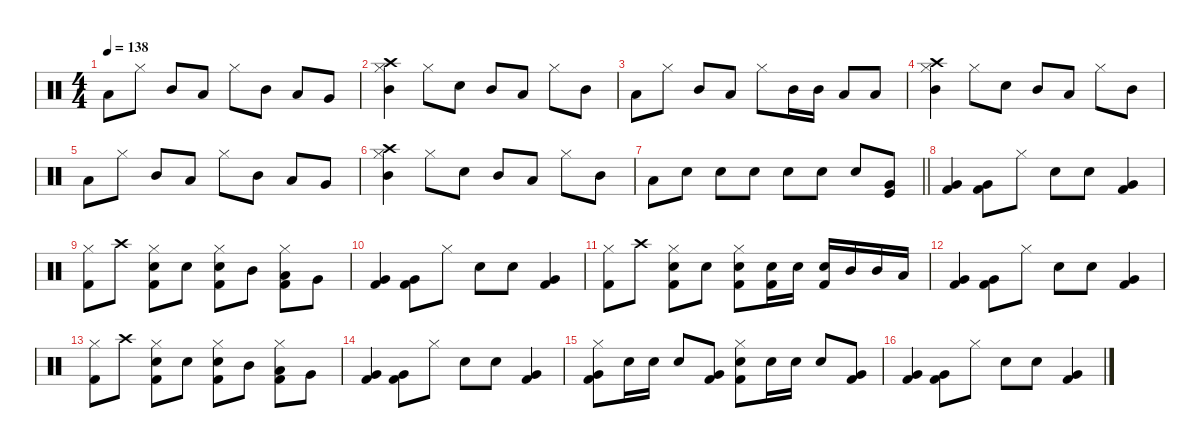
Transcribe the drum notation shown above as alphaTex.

\defaultSystemsLayout 4
\hideDynamics
\bracketExtendMode nobrackets
\singleTrackTrackNamePolicy hidden
\multiTrackTrackNamePolicy hidden
\otherSystemsTrackNameOrientation horizontal
\track ("Drums" "drm.") {instrument percussion}
\staff {score}
\articulation defaults
\ts (4 4)
\tempo 138
\clef neutral
\ks c "Low Tom (hit)".8{dy ff beam Down} "Hi-Hat (closed)".8{beam Down} "Mid Tom (hit)".8{beam Up} "Low Tom (hit)".8{beam Up} "Hi-Hat (closed)".8{beam Down} "Mid Tom (hit)".8{beam Down} "Low Tom (hit)".8{beam Up} "Very Low Tom (hit)".8{beam Up}
|
("Crash high (hit)" "Hi-Hat (closed)" "Mid Tom (hit)").4{beam Down} "Hi-Hat (closed)".8{beam Down} "Snare (hit) 2".8{beam Down} "Mid Tom (hit)".8{beam Up} "Low Tom (hit)".8{beam Up} "Hi-Hat (closed)".8{beam Down} "Mid Tom (hit)".8{beam Down} |
"Low Tom (hit)".8{beam Down} "Hi-Hat (closed)".8{beam Down} "Mid Tom (hit)".8{beam Up} "Low Tom (hit)".8{beam Up} "Hi-Hat (closed)".8{beam Down} "Mid Tom (hit)".16{dy mf beam Down} "Mid Tom (hit)".16{beam Down} "Low Tom (hit)".8{beam Up} "Low Tom (hit)".8{beam Up} |
("Crash high (hit)" "Hi-Hat (closed)" "Mid Tom (hit)").4{dy ff beam Down} "Hi-Hat (closed)".8{beam Down} "Snare (hit) 2".8{beam Down} "Mid Tom (hit)".8{beam Up} "Low Tom (hit)".8{beam Up} "Hi-Hat (closed)".8{beam Down} "Mid Tom (hit)".8{beam Down} |
"Low Tom (hit)".8{beam Down} "Hi-Hat (closed)".8{beam Down} "Mid Tom (hit)".8{beam Up} "Low Tom (hit)".8{beam Up} "Hi-Hat (closed)".8{beam Down} "Mid Tom (hit)".8{beam Down} "Low Tom (hit)".8{beam Up} "Very Low Tom (hit)".8{beam Up} |
("Crash high (hit)" "Hi-Hat (closed)" "Mid Tom (hit)").4{beam Down} "Hi-Hat (closed)".8{beam Down} "Snare (hit) 2".8{beam Down} "Mid Tom (hit)".8{beam Up} "Low Tom (hit)".8{beam Up} "Hi-Hat (closed)".8{beam Down} "Mid Tom (hit)".8{beam Down} |
\barLineRight lightlight "Low Tom (hit)".8{beam Down} "Snare (hit) 2".8{dy mp beam Down} "Snare (hit) 2".8{beam Down} "Snare (hit) 2".8{dy mf beam Down} "Snare (hit) 2".8{beam Down} "Snare (hit) 2".8{dy f beam Down} "Snare (hit) 2".8{dy ff beam Up}
("Very Low Tom (hit)" "Kick (hit)").8{dy fff beam Up} |
("Very Low Tom (hit)" "Kick (hit) 2").4{beam Up} ("Very Low Tom (hit)" "Kick (hit) 2").8{dy mp beam Down} "Hi-Hat (closed)".8{dy fff beam Down} "Snare (hit) 2".8{dy f beam Down} "Snare (hit) 2".8{dy mp beam Down} ("Very Low Tom (hit)" "Kick (hit) 2").4{beam Up} |
("Hi-Hat (closed)" "Kick (hit) 2").8{beam Down} "Crash high (hit)".8{beam Down} ("Hi-Hat (closed)" "Snare (hit) 2" "Kick (hit) 2").8{beam Down} "Snare (hit) 2".8{dy f beam Down} ("Hi-Hat (closed)" "Snare (hit) 2" "Kick (hit) 2").8{dy mp beam Down} "Mid Tom (hit)".8{beam Down} ("Hi-Hat (closed)" "Low Tom (hit)" "Kick (hit) 2").8{beam Down} "Very Low Tom (hit)".8{beam Down} |
("Very Low Tom (hit)" "Kick (hit) 2").4{dy fff beam Up} ("Very Low Tom (hit)" "Kick (hit) 2").8{dy mp beam Down} "Hi-Hat (closed)".8{dy fff beam Down} "Snare (hit) 2".8{dy f beam Down} "Snare (hit) 2".8{dy mp beam Down} ("Very Low Tom (hit)" "Kick (hit) 2").4{beam Up} |
("Hi-Hat (closed)" "Kick (hit) 2").8{beam Down} "Crash high (hit)".8{beam Down} ("Hi-Hat (closed)" "Snare (hit) 2" "Kick (hit) 2").8{dy f beam Down} "Snare (hit) 2".8{beam Down} ("Hi-Hat (closed)" "Snare (hit) 2" "Kick (hit) 2").8{beam Down} ("Snare (hit) 2" "Kick (hit) 2").16{beam Down} "Snare (hit) 2".16{beam Down} ("Snare (hit) 2" "Kick (hit) 2").16{beam Up} "Mid Tom (hit)".16{beam Up} "Mid Tom (hit)".16{beam Up} "Low Tom (hit)".16{beam Up} |
("Very Low Tom (hit)" "Kick (hit) 2").4{dy fff beam Up} ("Very Low Tom (hit)" "Kick (hit) 2").8{dy mp beam Down} "Hi-Hat (closed)".8{dy fff beam Down} "Snare (hit) 2".8{dy f beam Down} "Snare (hit) 2".8{dy mp beam Down} ("Very Low Tom (hit)" "Kick (hit) 2").4{beam Up} |
("Hi-Hat (closed)" "Kick (hit) 2").8{beam Down} "Crash high (hit)".8{beam Down} ("Hi-Hat (closed)" "Snare (hit) 2" "Kick (hit) 2").8{beam Down} "Snare (hit) 2".8{dy f beam Down} ("Hi-Hat (closed)" "Snare (hit) 2" "Kick (hit) 2").8{dy mp beam Down} "Mid Tom (hit)".8{beam Down} ("Hi-Hat (closed)" "Low Tom (hit)" "Kick (hit) 2").8{beam Down} "Very Low Tom (hit)".8{beam Down} |
("Very Low Tom (hit)" "Kick (hit) 2").4{dy fff beam Up} ("Very Low Tom (hit)" "Kick (hit) 2").8{dy mp beam Down} "Hi-Hat (closed)".8{dy fff beam Down} "Snare (hit) 2".8{dy f beam Down} "Snare (hit) 2".8{dy mp beam Down} ("Very Low Tom (hit)" "Kick (hit) 2").4{beam Up} |
("Hi-Hat (closed)" "Very Low Tom (hit)" "Kick (hit) 2").8{beam Down} "Snare (hit) 2".16{dy f beam Down} "Snare (hit) 2".16{beam Down} "Snare (hit) 2".8{beam Up} ("Very Low Tom (hit)" "Kick (hit) 2").8{beam Up} ("Hi-Hat (closed)" "Snare (hit) 2" "Kick (hit) 2").8{beam Down} "Snare (hit) 2".16{beam Down} "Snare (hit) 2".16{beam Down} "Snare (hit) 2".8{beam Up} ("Very Low Tom (hit)" "Kick (hit) 2").8{beam Up} |
("Very Low Tom (hit)" "Kick (hit) 2").4{dy fff beam Up} ("Very Low Tom (hit)" "Kick (hit) 2").8{dy mp beam Down} "Hi-Hat (closed)".8{dy fff beam Down} "Snare (hit) 2".8{dy f beam Down} "Snare (hit) 2".8{dy mp beam Down} ("Very Low Tom (hit)" "Kick (hit) 2").4{beam Up}
